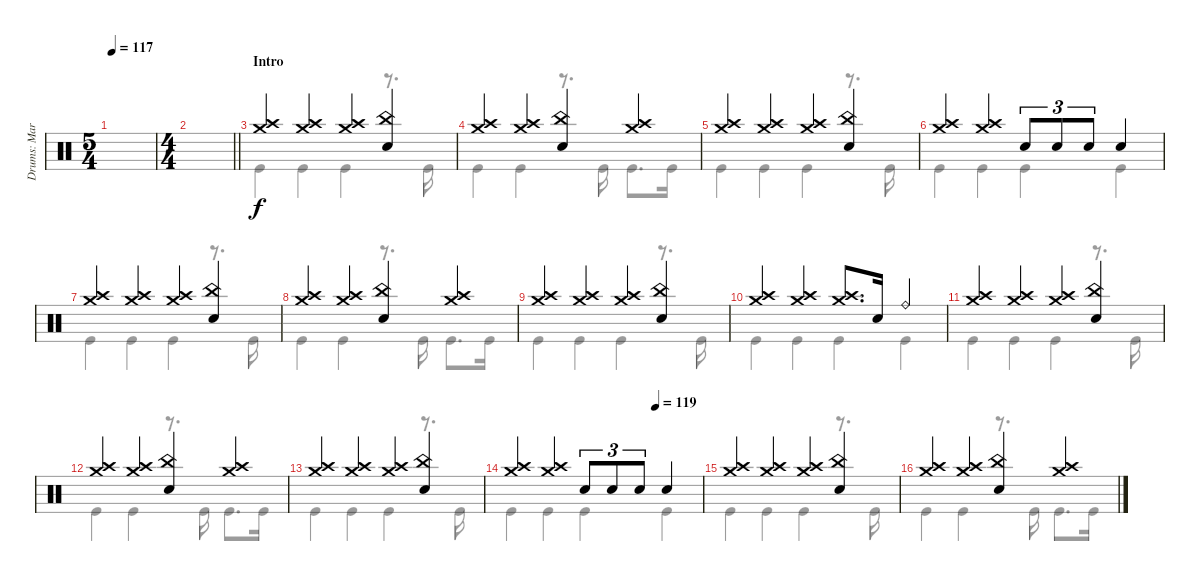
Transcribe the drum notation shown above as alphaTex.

\track ("Drums: Mario Duplantier" "Drums: Mar") {instrument percussion}
\staff {score}
\articulation defaults
\voice
\ts (5 4)
\tempo 117
\clef neutral
\ks c
|
\ts (4 4)
\barLineRight lightlight
|
\section ("" "Intro")
("Crash medium (hit)" "Crash high (hit)").4 ("Crash medium (hit)" "Crash high (hit)").4 ("Crash medium (hit)" "Crash high (hit)").4 ("Snare (hit) 2" "China (hit)").4 |
("Crash medium (hit)" "Crash high (hit)").4 ("Crash medium (hit)" "Crash high (hit)").4 ("Snare (hit) 2" "China (hit)").4 ("Crash medium (hit)" "Crash high (hit)").4 |
("Crash medium (hit)" "Crash high (hit)").4 ("Crash medium (hit)" "Crash high (hit)").4 ("Crash medium (hit)" "Crash high (hit)").4 ("Snare (hit) 2" "China (hit)").4 |
("Crash medium (hit)" "Crash high (hit)").4 ("Crash medium (hit)" "Crash high (hit)").4 "Snare (hit) 2".8{tu (3 2)} "Snare (hit) 2".8{tu (3 2)} "Snare (hit) 2".8{tu (3 2)} "Snare (hit) 2".4 |
("Crash medium (hit)" "Crash high (hit)").4 ("Crash medium (hit)" "Crash high (hit)").4 ("Crash medium (hit)" "Crash high (hit)").4 ("Snare (hit) 2" "China (hit)").4 |
("Crash medium (hit)" "Crash high (hit)").4 ("Crash medium (hit)" "Crash high (hit)").4 ("Snare (hit) 2" "China (hit)").4 ("Crash medium (hit)" "Crash high (hit)").4 |
("Crash medium (hit)" "Crash high (hit)").4 ("Crash medium (hit)" "Crash high (hit)").4 ("Crash medium (hit)" "Crash high (hit)").4 ("Snare (hit) 2" "China (hit)").4 |
("Crash medium (hit)" "Crash high (hit)").4 ("Crash medium (hit)" "Crash high (hit)").4 ("Crash medium (hit)" "Crash high (hit)").8{d} "Snare (hit) 2".16 "Ride (bell)".4 |
("Crash medium (hit)" "Crash high (hit)").4 ("Crash medium (hit)" "Crash high (hit)").4 ("Crash medium (hit)" "Crash high (hit)").4 ("Snare (hit) 2" "China (hit)").4 |
("Crash medium (hit)" "Crash high (hit)").4 ("Crash medium (hit)" "Crash high (hit)").4 ("Snare (hit) 2" "China (hit)").4 ("Crash medium (hit)" "Crash high (hit)").4 |
("Crash medium (hit)" "Crash high (hit)").4 ("Crash medium (hit)" "Crash high (hit)").4 ("Crash medium (hit)" "Crash high (hit)").4 ("Snare (hit) 2" "China (hit)").4 |
\tempo (119 0.75)
("Crash medium (hit)" "Crash high (hit)").4 ("Crash medium (hit)" "Crash high (hit)").4 "Snare (hit) 2".8{tu (3 2)} "Snare (hit) 2".8{tu (3 2)} "Snare (hit) 2".8{tu (3 2)} "Snare (hit) 2".4 |
("Crash medium (hit)" "Crash high (hit)").4 ("Crash medium (hit)" "Crash high (hit)").4 ("Crash medium (hit)" "Crash high (hit)").4 ("Snare (hit) 2" "China (hit)").4 |
("Crash medium (hit)" "Crash high (hit)").4 ("Crash medium (hit)" "Crash high (hit)").4 ("Snare (hit) 2" "China (hit)").4 ("Crash medium (hit)" "Crash high (hit)").4
\voice
\clef neutral
\ottava regular
\simile none
\ks c
|
\barLineRight lightlight
|
"Kick (hit)".4 "Kick (hit)".4 "Kick (hit)".4 r.8{d} "Kick (hit)".16 |
"Kick (hit)".4 "Kick (hit)".4 r.8{d} "Kick (hit)".16 "Kick (hit)".8{d} "Kick (hit)".16 |
"Kick (hit)".4 "Kick (hit)".4 "Kick (hit)".4 r.8{d} "Kick (hit)".16 |
"Kick (hit)".4 "Kick (hit)".4 "Kick (hit)".4 "Kick (hit)".4 |
"Kick (hit)".4 "Kick (hit)".4 "Kick (hit)".4 r.8{d} "Kick (hit)".16 |
"Kick (hit)".4 "Kick (hit)".4 r.8{d} "Kick (hit)".16 "Kick (hit)".8{d} "Kick (hit)".16 |
"Kick (hit)".4 "Kick (hit)".4 "Kick (hit)".4 r.8{d} "Kick (hit)".16 |
"Kick (hit)".4 "Kick (hit)".4 "Kick (hit)".4 "Kick (hit)".4 |
"Kick (hit)".4 "Kick (hit)".4 "Kick (hit)".4 r.8{d} "Kick (hit)".16 |
"Kick (hit)".4 "Kick (hit)".4 r.8{d} "Kick (hit)".16 "Kick (hit)".8{d} "Kick (hit)".16 |
"Kick (hit)".4 "Kick (hit)".4 "Kick (hit)".4 r.8{d} "Kick (hit)".16 |
"Kick (hit)".4 "Kick (hit)".4 "Kick (hit)".4 "Kick (hit)".4 |
"Kick (hit)".4 "Kick (hit)".4 "Kick (hit)".4 r.8{d} "Kick (hit)".16 |
"Kick (hit)".4 "Kick (hit)".4 r.8{d} "Kick (hit)".16 "Kick (hit)".8{d} "Kick (hit)".16
